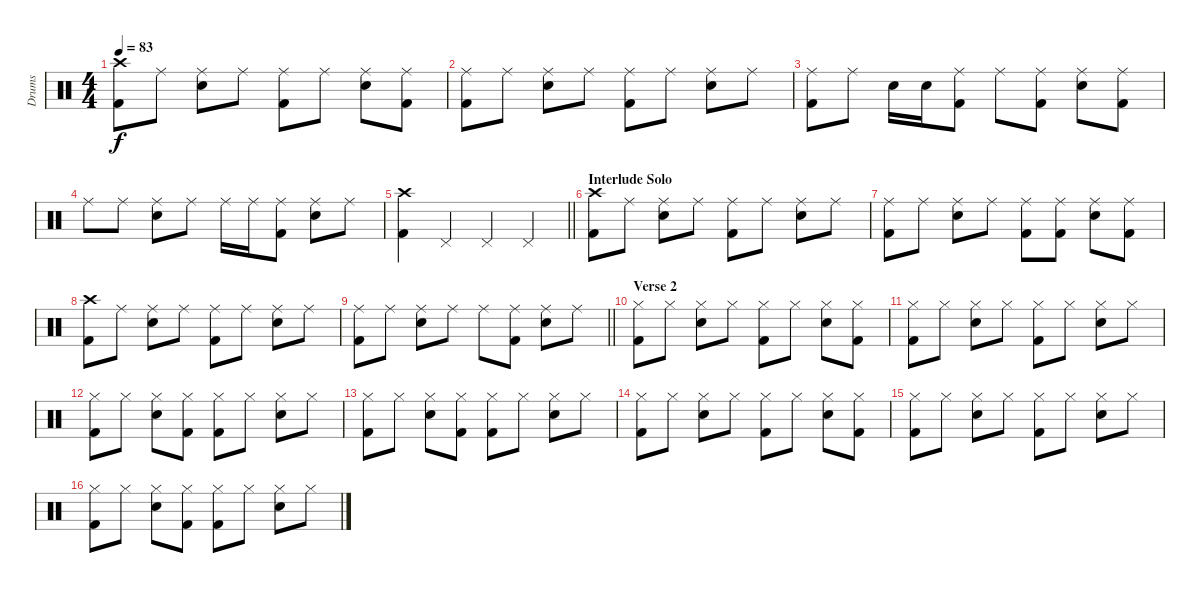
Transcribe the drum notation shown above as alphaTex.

\track ("Drums" "Drums") {instrument percussion}
\staff {score}
\articulation defaults
\ts (4 4)
\tempo 83
\clef neutral
\ks c
("Crash high (hit)" "Kick (hit) 2").8{dy f} "Ride (middle)".8 ("Ride (middle)" "Snare (hit) 2").8 "Ride (middle)".8 ("Ride (middle)" "Kick (hit) 2").8 "Ride (middle)".8 ("Ride (middle)" "Snare (hit) 2").8 ("Ride (middle)" "Kick (hit) 2").8 |
("Ride (middle)" "Kick (hit) 2").8 "Ride (middle)".8 ("Ride (middle)" "Snare (hit) 2").8 "Ride (middle)".8 ("Ride (middle)" "Kick (hit) 2").8 "Ride (middle)".8 ("Ride (middle)" "Snare (hit) 2").8 "Ride (middle)".8 |
("Ride (middle)" "Kick (hit) 2").8 "Ride (middle)".8 "Snare (hit) 2".16 "Snare (hit) 2".16 ("Ride (middle)" "Kick (hit) 2").8 "Ride (middle)".8 ("Ride (middle)" "Kick (hit) 2").8 ("Ride (middle)" "Snare (hit) 2").8 ("Ride (middle)" "Kick (hit) 2").8 |
"Ride (middle)".8 "Ride (middle)".8 ("Ride (middle)" "Snare (hit) 2").8 "Ride (middle)".8 "Ride (middle)".16 "Ride (middle)".16 ("Ride (middle)" "Kick (hit) 2").8 ("Ride (middle)" "Snare (hit) 2").8 "Ride (middle)".8 |
\barLineRight lightlight
("Crash high (hit)" "Kick (hit) 2").4 "Pedal Hi-Hat (hit)".4 "Pedal Hi-Hat (hit)".4 "Pedal Hi-Hat (hit)".4 |
\section ("" "Interlude Solo")
("Crash high (hit)" "Kick (hit) 2").8 "Ride (middle)".8 ("Ride (middle)" "Snare (hit) 2").8 "Ride (middle)".8 ("Ride (middle)" "Kick (hit) 2").8 "Ride (middle)".8 ("Ride (middle)" "Snare (hit) 2").8 "Ride (middle)".8 |
("Ride (middle)" "Kick (hit) 2").8 "Ride (middle)".8 ("Ride (middle)" "Snare (hit) 2").8 "Ride (middle)".8 ("Ride (middle)" "Kick (hit) 2").8 ("Ride (middle)" "Kick (hit) 2").8 ("Ride (middle)" "Snare (hit) 2").8 ("Ride (middle)" "Kick (hit) 2").8 |
("Crash high (hit)" "Kick (hit) 2").8 "Ride (middle)".8 ("Ride (middle)" "Snare (hit) 2").8 "Ride (middle)".8 ("Ride (middle)" "Kick (hit) 2").8 "Ride (middle)".8 ("Ride (middle)" "Snare (hit) 2").8 "Ride (middle)".8 |
\barLineRight lightlight
("Ride (middle)" "Kick (hit) 2").8 "Ride (middle)".8 ("Ride (middle)" "Snare (hit) 2").8 "Ride (middle)".8 "Ride (middle)".8 ("Ride (middle)" "Kick (hit) 2").8 ("Ride (middle)" "Snare (hit) 2").8 "Ride (middle)".8 |
\section ("" "Verse 2")
("Hi-Hat (closed)" "Kick (hit) 2").8 "Hi-Hat (closed)".8 ("Hi-Hat (closed)" "Snare (hit) 2").8 "Hi-Hat (closed)".8 ("Hi-Hat (closed)" "Kick (hit) 2").8 "Hi-Hat (closed)".8 ("Hi-Hat (closed)" "Snare (hit) 2").8 ("Hi-Hat (closed)" "Kick (hit) 2").8 |
("Hi-Hat (closed)" "Kick (hit) 2").8 "Hi-Hat (closed)".8 ("Hi-Hat (closed)" "Snare (hit) 2").8 "Hi-Hat (closed)".8 ("Hi-Hat (closed)" "Kick (hit) 2").8 "Hi-Hat (closed)".8 ("Hi-Hat (closed)" "Snare (hit) 2").8 "Hi-Hat (closed)".8 |
("Hi-Hat (closed)" "Kick (hit) 2").8 "Hi-Hat (closed)".8 ("Hi-Hat (closed)" "Snare (hit) 2").8 ("Hi-Hat (closed)" "Kick (hit) 2").8 ("Hi-Hat (closed)" "Kick (hit) 2").8 "Hi-Hat (closed)".8 ("Hi-Hat (closed)" "Snare (hit) 2").8 "Hi-Hat (closed)".8 |
("Hi-Hat (closed)" "Kick (hit) 2").8 "Hi-Hat (closed)".8 ("Hi-Hat (closed)" "Snare (hit) 2").8 ("Hi-Hat (closed)" "Kick (hit) 2").8 ("Hi-Hat (closed)" "Kick (hit) 2").8 "Hi-Hat (closed)".8 ("Hi-Hat (closed)" "Snare (hit) 2").8 "Hi-Hat (closed)".8 |
("Hi-Hat (closed)" "Kick (hit) 2").8 "Hi-Hat (closed)".8 ("Hi-Hat (closed)" "Snare (hit) 2").8 "Hi-Hat (closed)".8 ("Hi-Hat (closed)" "Kick (hit) 2").8 "Hi-Hat (closed)".8 ("Hi-Hat (closed)" "Snare (hit) 2").8 ("Hi-Hat (closed)" "Kick (hit) 2").8 |
("Hi-Hat (closed)" "Kick (hit) 2").8 "Hi-Hat (closed)".8 ("Hi-Hat (closed)" "Snare (hit) 2").8 "Hi-Hat (closed)".8 ("Hi-Hat (closed)" "Kick (hit) 2").8 "Hi-Hat (closed)".8 ("Hi-Hat (closed)" "Snare (hit) 2").8 "Hi-Hat (closed)".8 |
("Hi-Hat (closed)" "Kick (hit) 2").8 "Hi-Hat (closed)".8 ("Hi-Hat (closed)" "Snare (hit) 2").8 ("Hi-Hat (closed)" "Kick (hit) 2").8 ("Hi-Hat (closed)" "Kick (hit) 2").8 "Hi-Hat (closed)".8 ("Hi-Hat (closed)" "Snare (hit) 2").8 "Hi-Hat (closed)".8
